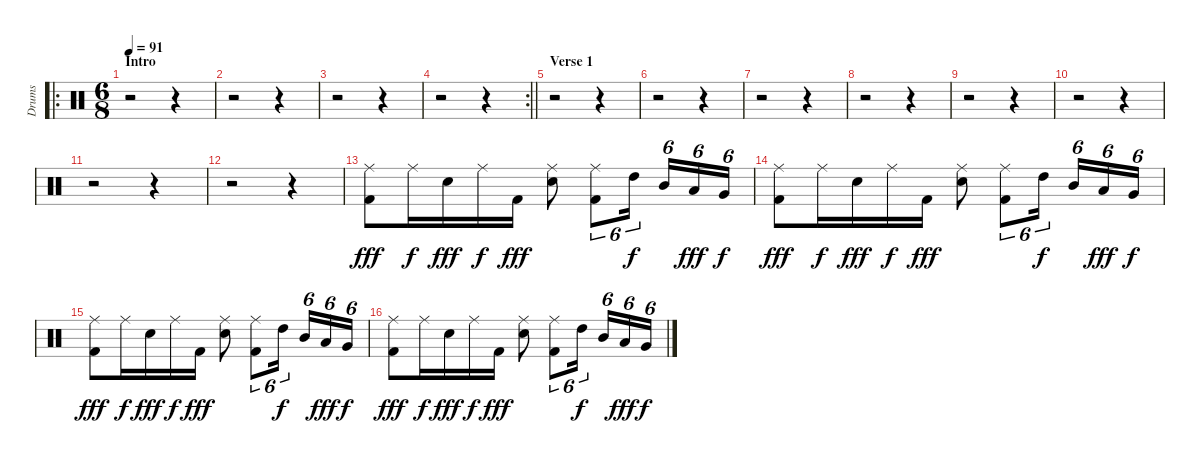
\track ("Drums" "Drums") {instrument percussion}
\staff {score}
\articulation defaults
\ro
\ts (6 8)
\section ("" "Intro")
\tempo 91
\clef neutral
\ks c
r.2{dy fff} r.4 |
r.2 r.4 |
r.2 r.4 |
\rc 2
\barLineRight lightlight
r.2 r.4 |
\section ("" "Verse 1")
r.2 r.4 |
r.2 r.4 |
r.2 r.4 |
r.2 r.4 |
r.2 r.4 |
r.2 r.4 |
r.2 r.4 |
r.2 r.4 |
("Ride (middle)" "Kick (hit) 2").8 "Ride (middle)".16{dy f} "Electric Snare (hit)".16{dy fff} "Ride (middle)".16{dy f} "Kick (hit) 2".16{dy fff} ("Ride (middle)" "Electric Snare (hit)").8 ("Ride (middle)" "Kick (hit) 2").8{tu (6 4)} "High Tom (hit)".16{tu (6 4) dy f} "Mid Tom (hit)".16{tu (6 4)} "Low Tom (hit)".16{tu (6 4) dy fff} "Very Low Tom (hit)".16{tu (6 4) dy f} |
("Ride (middle)" "Kick (hit) 2").8{dy fff} "Ride (middle)".16{dy f} "Electric Snare (hit)".16{dy fff} "Ride (middle)".16{dy f} "Kick (hit) 2".16{dy fff} ("Ride (middle)" "Electric Snare (hit)").8 ("Ride (middle)" "Kick (hit) 2").8{tu (6 4)} "High Tom (hit)".16{tu (6 4) dy f} "Mid Tom (hit)".16{tu (6 4)} "Low Tom (hit)".16{tu (6 4) dy fff} "Very Low Tom (hit)".16{tu (6 4) dy f} |
("Ride (middle)" "Kick (hit) 2").8{dy fff} "Ride (middle)".16{dy f} "Electric Snare (hit)".16{dy fff} "Ride (middle)".16{dy f} "Kick (hit) 2".16{dy fff} ("Ride (middle)" "Electric Snare (hit)").8 ("Ride (middle)" "Kick (hit) 2").8{tu (6 4)} "High Tom (hit)".16{tu (6 4) dy f} "Mid Tom (hit)".16{tu (6 4)} "Low Tom (hit)".16{tu (6 4) dy fff} "Very Low Tom (hit)".16{tu (6 4) dy f} |
("Ride (middle)" "Kick (hit) 2").8{dy fff} "Ride (middle)".16{dy f} "Electric Snare (hit)".16{dy fff} "Ride (middle)".16{dy f} "Kick (hit) 2".16{dy fff} ("Ride (middle)" "Electric Snare (hit)").8 ("Ride (middle)" "Kick (hit) 2").8{tu (6 4)} "High Tom (hit)".16{tu (6 4) dy f} "Mid Tom (hit)".16{tu (6 4)} "Low Tom (hit)".16{tu (6 4) dy fff} "Very Low Tom (hit)".16{tu (6 4) dy f}
